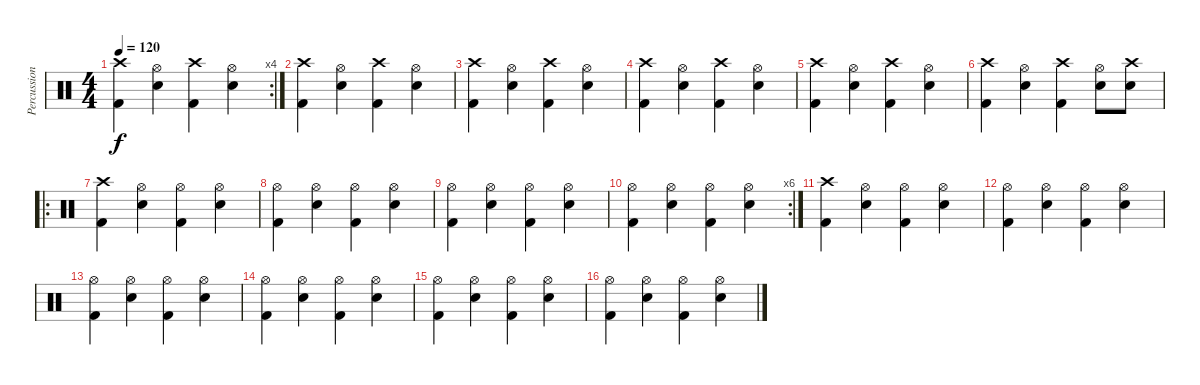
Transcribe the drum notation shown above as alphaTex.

\track ("Percussions" "Percussion") {instrument percussion}
\staff {score}
\articulation defaults
\rc 4
\ts (4 4)
\tempo 120
\clef neutral
\ks c
("Crash high (hit)" "Kick (hit) 2").4{dy f} ("Hi-Hat (open)" "Snare (hit) 2").4 ("Crash high (hit)" "Kick (hit) 2").4 ("Hi-Hat (open)" "Snare (hit) 2").4 |
("Crash high (hit)" "Kick (hit) 2").4 ("Hi-Hat (open)" "Snare (hit) 2").4 ("Crash high (hit)" "Kick (hit) 2").4 ("Hi-Hat (open)" "Snare (hit) 2").4 |
("Crash high (hit)" "Kick (hit) 2").4 ("Hi-Hat (open)" "Snare (hit) 2").4 ("Crash high (hit)" "Kick (hit) 2").4 ("Hi-Hat (open)" "Snare (hit) 2").4 |
("Crash high (hit)" "Kick (hit) 2").4 ("Hi-Hat (open)" "Snare (hit) 2").4 ("Crash high (hit)" "Kick (hit) 2").4 ("Hi-Hat (open)" "Snare (hit) 2").4 |
("Crash high (hit)" "Kick (hit) 2").4 ("Hi-Hat (open)" "Snare (hit) 2").4 ("Crash high (hit)" "Kick (hit) 2").4 ("Hi-Hat (open)" "Snare (hit) 2").4 |
("Crash high (hit)" "Kick (hit) 2").4 ("Hi-Hat (open)" "Snare (hit) 2").4 ("Crash high (hit)" "Kick (hit) 2").4 ("Hi-Hat (open)" "Snare (hit) 2").8 ("Crash high (hit)" "Snare (hit) 2").8 |
\ro
("Crash high (hit)" "Kick (hit) 2").4 ("Hi-Hat (open)" "Snare (hit) 2").4 ("Hi-Hat (open)" "Kick (hit) 2").4 ("Hi-Hat (open)" "Snare (hit) 2").4 |
("Hi-Hat (open)" "Kick (hit) 2").4 ("Hi-Hat (open)" "Snare (hit) 2").4 ("Hi-Hat (open)" "Kick (hit) 2").4 ("Hi-Hat (open)" "Snare (hit) 2").4 |
("Hi-Hat (open)" "Kick (hit) 2").4 ("Hi-Hat (open)" "Snare (hit) 2").4 ("Hi-Hat (open)" "Kick (hit) 2").4 ("Hi-Hat (open)" "Snare (hit) 2").4 |
\rc 6
("Hi-Hat (open)" "Kick (hit) 2").4 ("Hi-Hat (open)" "Snare (hit) 2").4 ("Hi-Hat (open)" "Kick (hit) 2").4 ("Hi-Hat (open)" "Snare (hit) 2").4 |
("Crash high (hit)" "Kick (hit) 2").4 ("Hi-Hat (open)" "Electric Snare (hit)").4 ("Hi-Hat (open)" "Kick (hit) 2").4 ("Hi-Hat (open)" "Electric Snare (hit)").4 |
("Hi-Hat (open)" "Kick (hit) 2").4 ("Hi-Hat (open)" "Electric Snare (hit)").4 ("Hi-Hat (open)" "Kick (hit) 2").4 ("Hi-Hat (open)" "Electric Snare (hit)").4 |
("Hi-Hat (open)" "Kick (hit) 2").4 ("Hi-Hat (open)" "Electric Snare (hit)").4 ("Hi-Hat (open)" "Kick (hit) 2").4 ("Hi-Hat (open)" "Electric Snare (hit)").4 |
("Hi-Hat (open)" "Kick (hit) 2").4 ("Hi-Hat (open)" "Electric Snare (hit)").4 ("Hi-Hat (open)" "Kick (hit) 2").4 ("Hi-Hat (open)" "Electric Snare (hit)").4 |
("Hi-Hat (open)" "Kick (hit) 2").4 ("Hi-Hat (open)" "Electric Snare (hit)").4 ("Hi-Hat (open)" "Kick (hit) 2").4 ("Hi-Hat (open)" "Electric Snare (hit)").4 |
("Hi-Hat (open)" "Kick (hit) 2").4 ("Hi-Hat (open)" "Electric Snare (hit)").4 ("Hi-Hat (open)" "Kick (hit) 2").4 ("Hi-Hat (open)" "Electric Snare (hit)").4
